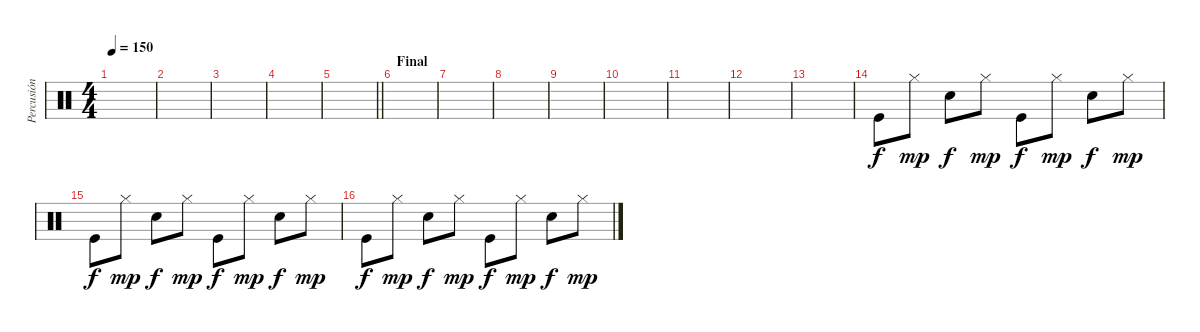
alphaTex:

\track ("Percusión" "Percusión") {instrument percussion}
\staff {score}
\articulation defaults
\ts (4 4)
\tempo 150
\clef neutral
\ks c
|
|
|
|
\barLineRight lightlight
|
\section ("" "Final")
|
|
|
|
|
|
|
|
"Kick (hit)".8 "Hi-Hat (closed)".8{dy mp} "Snare (hit) 2".8{dy f} "Hi-Hat (closed)".8{dy mp} "Kick (hit)".8{dy f} "Hi-Hat (closed)".8{dy mp} "Snare (hit) 2".8{dy f} "Hi-Hat (closed)".8{dy mp} |
"Kick (hit)".8{dy f} "Hi-Hat (closed)".8{dy mp} "Snare (hit) 2".8{dy f} "Hi-Hat (closed)".8{dy mp} "Kick (hit)".8{dy f} "Hi-Hat (closed)".8{dy mp} "Snare (hit) 2".8{dy f} "Hi-Hat (closed)".8{dy mp} |
"Kick (hit)".8{dy f} "Hi-Hat (closed)".8{dy mp} "Snare (hit) 2".8{dy f} "Hi-Hat (closed)".8{dy mp} "Kick (hit)".8{dy f} "Hi-Hat (closed)".8{dy mp} "Snare (hit) 2".8{dy f} "Hi-Hat (closed)".8{dy mp}
